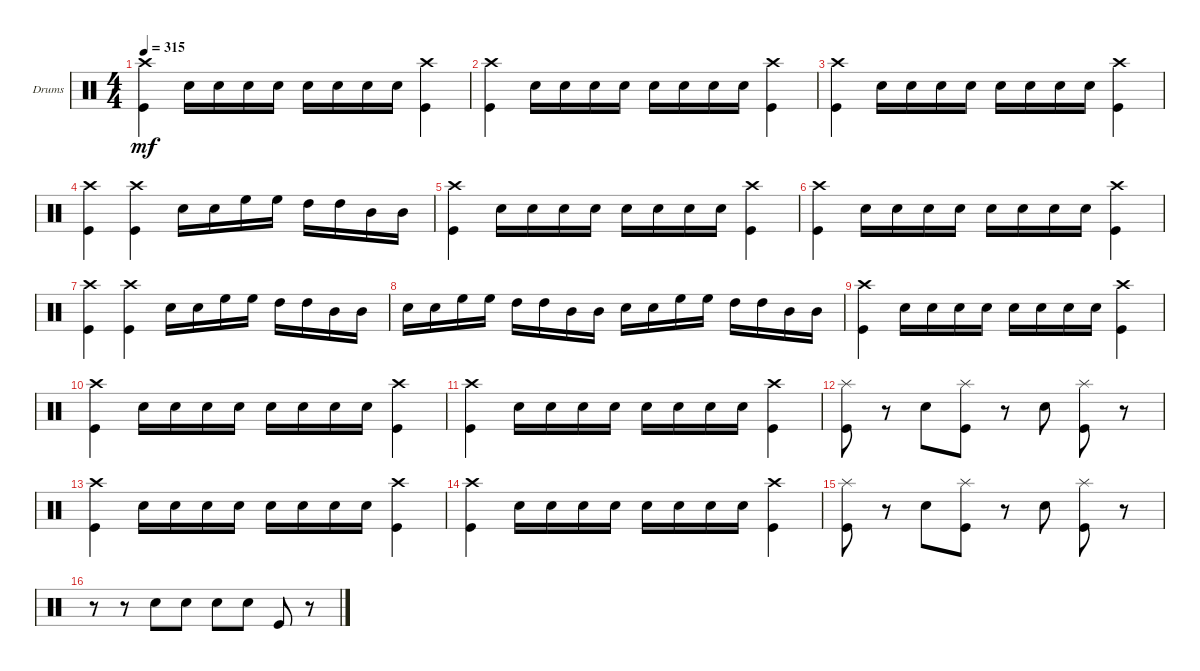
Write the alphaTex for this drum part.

\bracketExtendMode groupsimilarinstruments
\firstSystemTrackNameOrientation horizontal
\otherSystemsTrackNameOrientation horizontal
\track ("Drumkit" "Drums") {instrument percussion}
\staff {score}
\articulation defaults
\ts (4 4)
\tempo 315
\clef neutral
\ks c
("Kick (hit)" "Crash high (hit)").4{dy mf} "Snare (hit) 2".16 "Snare (hit) 2".16 "Snare (hit) 2".16 "Snare (hit) 2".16 "Snare (hit) 2".16 "Snare (hit) 2".16 "Snare (hit) 2".16 "Snare (hit) 2".16 ("Kick (hit)" "Crash high (hit)").4 |
("Kick (hit)" "Crash high (hit)").4 "Snare (hit) 2".16 "Snare (hit) 2".16 "Snare (hit) 2".16 "Snare (hit) 2".16 "Snare (hit) 2".16 "Snare (hit) 2".16 "Snare (hit) 2".16 "Snare (hit) 2".16 ("Kick (hit)" "Crash high (hit)").4 |
("Kick (hit)" "Crash high (hit)").4 "Snare (hit) 2".16 "Snare (hit) 2".16 "Snare (hit) 2".16 "Snare (hit) 2".16 "Snare (hit) 2".16 "Snare (hit) 2".16 "Snare (hit) 2".16 "Snare (hit) 2".16 ("Kick (hit)" "Crash high (hit)").4 |
("Kick (hit)" "Crash high (hit)").4 ("Kick (hit)" "Crash high (hit)").4 "Snare (hit) 2".16 "Snare (hit) 2".16 "High Floor Tom (hit)".16 "High Floor Tom (hit)".16 "High Tom (hit)".16 "High Tom (hit)".16 "Mid Tom (hit)".16 "Mid Tom (hit)".16 |
("Kick (hit)" "Crash high (hit)").4 "Snare (hit) 2".16 "Snare (hit) 2".16 "Snare (hit) 2".16 "Snare (hit) 2".16 "Snare (hit) 2".16 "Snare (hit) 2".16 "Snare (hit) 2".16 "Snare (hit) 2".16 ("Kick (hit)" "Crash high (hit)").4 |
("Kick (hit)" "Crash high (hit)").4 "Snare (hit) 2".16 "Snare (hit) 2".16 "Snare (hit) 2".16 "Snare (hit) 2".16 "Snare (hit) 2".16 "Snare (hit) 2".16 "Snare (hit) 2".16 "Snare (hit) 2".16 ("Kick (hit)" "Crash high (hit)").4 |
("Kick (hit)" "Crash high (hit)").4 ("Kick (hit)" "Crash high (hit)").4 "Snare (hit) 2".16 "Snare (hit) 2".16 "High Floor Tom (hit)".16 "High Floor Tom (hit)".16 "High Tom (hit)".16 "High Tom (hit)".16 "Mid Tom (hit)".16 "Mid Tom (hit)".16 |
"Snare (hit) 2".16 "Snare (hit) 2".16 "High Floor Tom (hit)".16 "High Floor Tom (hit)".16 "High Tom (hit)".16 "High Tom (hit)".16 "Mid Tom (hit)".16 "Mid Tom (hit)".16 "Snare (hit) 2".16 "Snare (hit) 2".16 "High Floor Tom (hit)".16 "High Floor Tom (hit)".16 "High Tom (hit)".16 "High Tom (hit)".16 "Mid Tom (hit)".16 "Mid Tom (hit)".16 |
("Kick (hit)" "Crash high (hit)").4 "Snare (hit) 2".16 "Snare (hit) 2".16 "Snare (hit) 2".16 "Snare (hit) 2".16 "Snare (hit) 2".16 "Snare (hit) 2".16 "Snare (hit) 2".16 "Snare (hit) 2".16 ("Kick (hit)" "Crash high (hit)").4 |
("Kick (hit)" "Crash high (hit)").4 "Snare (hit) 2".16 "Snare (hit) 2".16 "Snare (hit) 2".16 "Snare (hit) 2".16 "Snare (hit) 2".16 "Snare (hit) 2".16 "Snare (hit) 2".16 "Snare (hit) 2".16 ("Kick (hit)" "Crash high (hit)").4 |
("Kick (hit)" "Crash high (hit)").4 "Snare (hit) 2".16 "Snare (hit) 2".16 "Snare (hit) 2".16 "Snare (hit) 2".16 "Snare (hit) 2".16 "Snare (hit) 2".16 "Snare (hit) 2".16 "Snare (hit) 2".16 ("Kick (hit)" "Crash high (hit)").4 |
("Kick (hit)" "Splash (hit)").8 r.8 "Snare (hit) 2".8 ("Kick (hit)" "Splash (hit)").8 r.8 "Snare (hit) 2".8 ("Kick (hit)" "Splash (hit)").8 r.8 |
("Kick (hit)" "Crash high (hit)").4 "Snare (hit) 2".16 "Snare (hit) 2".16 "Snare (hit) 2".16 "Snare (hit) 2".16 "Snare (hit) 2".16 "Snare (hit) 2".16 "Snare (hit) 2".16 "Snare (hit) 2".16 ("Kick (hit)" "Crash high (hit)").4 |
("Kick (hit)" "Crash high (hit)").4 "Snare (hit) 2".16 "Snare (hit) 2".16 "Snare (hit) 2".16 "Snare (hit) 2".16 "Snare (hit) 2".16 "Snare (hit) 2".16 "Snare (hit) 2".16 "Snare (hit) 2".16 ("Kick (hit)" "Crash high (hit)").4 |
("Kick (hit)" "Splash (hit)").8 r.8 "Snare (hit) 2".8 ("Kick (hit)" "Splash (hit)").8 r.8 "Snare (hit) 2".8 ("Kick (hit)" "Splash (hit)").8 r.8 |
r.8 r.8 "Snare (hit) 2".8 "Snare (hit) 2".8 "Snare (hit) 2".8 "Snare (hit) 2".8 "Kick (hit)".8 r.8
